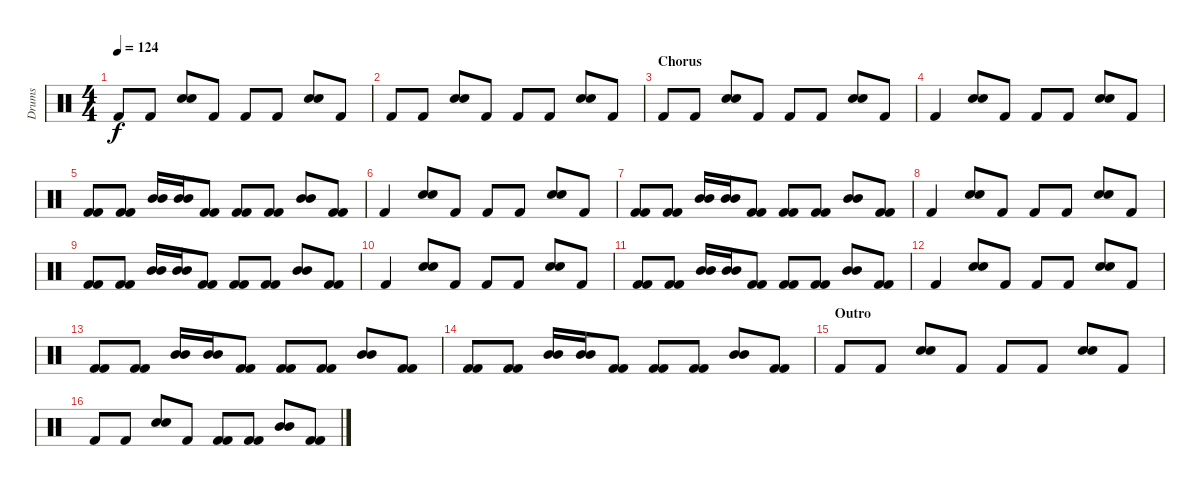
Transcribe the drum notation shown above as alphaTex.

\track ("Drums" "Drums") {instrument percussion}
\staff {score}
\articulation defaults
\ts (4 4)
\tempo 124
\clef neutral
\ks c "Kick (hit) 2".8{dy f} "Kick (hit) 2".8
("Snare (hit) 2" "Snare (hit) 2").8 "Kick (hit) 2".8 "Kick (hit) 2".8 "Kick (hit) 2".8 ("Snare (hit) 2" "Snare (hit) 2").8 "Kick (hit) 2".8 |
"Kick (hit) 2".8 "Kick (hit) 2".8 ("Snare (hit) 2" "Snare (hit) 2").8 "Kick (hit) 2".8 "Kick (hit) 2".8 "Kick (hit) 2".8 ("Snare (hit) 2" "Snare (hit) 2").8 "Kick (hit) 2".8 |
\section ("" "Chorus")
"Kick (hit) 2".8 "Kick (hit) 2".8 ("Snare (hit) 2" "Snare (hit) 2").8 "Kick (hit) 2".8 "Kick (hit) 2".8 "Kick (hit) 2".8 ("Snare (hit) 2" "Snare (hit) 2").8 "Kick (hit) 2".8 |
"Kick (hit) 2".4 ("Snare (hit) 2" "Snare (hit) 2").8 "Kick (hit) 2".8 "Kick (hit) 2".8 "Kick (hit) 2".8 ("Snare (hit) 2" "Snare (hit) 2").8 "Kick (hit) 2".8 |
("Kick (hit) 2" "Kick (hit) 2").8 ("Kick (hit) 2" "Kick (hit) 2").8 ("Mid Tom (hit)" "Mid Tom (hit)").16 ("Mid Tom (hit)" "Mid Tom (hit)").16 ("Kick (hit) 2" "Kick (hit) 2").8 ("Kick (hit) 2" "Kick (hit) 2").8 ("Kick (hit) 2" "Kick (hit) 2").8 ("Mid Tom (hit)" "Mid Tom (hit)").8 ("Kick (hit) 2" "Kick (hit) 2").8 |
"Kick (hit) 2".4 ("Snare (hit) 2" "Snare (hit) 2").8 "Kick (hit) 2".8 "Kick (hit) 2".8 "Kick (hit) 2".8 ("Snare (hit) 2" "Snare (hit) 2").8 "Kick (hit) 2".8 |
("Kick (hit) 2" "Kick (hit) 2").8 ("Kick (hit) 2" "Kick (hit) 2").8 ("Mid Tom (hit)" "Mid Tom (hit)").16 ("Mid Tom (hit)" "Mid Tom (hit)").16 ("Kick (hit) 2" "Kick (hit) 2").8 ("Kick (hit) 2" "Kick (hit) 2").8 ("Kick (hit) 2" "Kick (hit) 2").8 ("Mid Tom (hit)" "Mid Tom (hit)").8 ("Kick (hit) 2" "Kick (hit) 2").8 |
"Kick (hit) 2".4 ("Snare (hit) 2" "Snare (hit) 2").8 "Kick (hit) 2".8 "Kick (hit) 2".8 "Kick (hit) 2".8 ("Snare (hit) 2" "Snare (hit) 2").8 "Kick (hit) 2".8 |
("Kick (hit) 2" "Kick (hit) 2").8 ("Kick (hit) 2" "Kick (hit) 2").8 ("Mid Tom (hit)" "Mid Tom (hit)").16 ("Mid Tom (hit)" "Mid Tom (hit)").16 ("Kick (hit) 2" "Kick (hit) 2").8 ("Kick (hit) 2" "Kick (hit) 2").8 ("Kick (hit) 2" "Kick (hit) 2").8 ("Mid Tom (hit)" "Mid Tom (hit)").8 ("Kick (hit) 2" "Kick (hit) 2").8 |
"Kick (hit) 2".4 ("Snare (hit) 2" "Snare (hit) 2").8 "Kick (hit) 2".8 "Kick (hit) 2".8 "Kick (hit) 2".8 ("Snare (hit) 2" "Snare (hit) 2").8 "Kick (hit) 2".8 |
("Kick (hit) 2" "Kick (hit) 2").8 ("Kick (hit) 2" "Kick (hit) 2").8 ("Mid Tom (hit)" "Mid Tom (hit)").16 ("Mid Tom (hit)" "Mid Tom (hit)").16 ("Kick (hit) 2" "Kick (hit) 2").8 ("Kick (hit) 2" "Kick (hit) 2").8 ("Kick (hit) 2" "Kick (hit) 2").8 ("Mid Tom (hit)" "Mid Tom (hit)").8 ("Kick (hit) 2" "Kick (hit) 2").8 |
"Kick (hit) 2".4 ("Snare (hit) 2" "Snare (hit) 2").8 "Kick (hit) 2".8 "Kick (hit) 2".8 "Kick (hit) 2".8 ("Snare (hit) 2" "Snare (hit) 2").8 "Kick (hit) 2".8 |
("Kick (hit) 2" "Kick (hit) 2").8 ("Kick (hit) 2" "Kick (hit) 2").8 ("Mid Tom (hit)" "Mid Tom (hit)").16 ("Mid Tom (hit)" "Mid Tom (hit)").16 ("Kick (hit) 2" "Kick (hit) 2").8 ("Kick (hit) 2" "Kick (hit) 2").8 ("Kick (hit) 2" "Kick (hit) 2").8 ("Mid Tom (hit)" "Mid Tom (hit)").8 ("Kick (hit) 2" "Kick (hit) 2").8 |
("Kick (hit) 2" "Kick (hit) 2").8 ("Kick (hit) 2" "Kick (hit) 2").8 ("Mid Tom (hit)" "Mid Tom (hit)").16 ("Mid Tom (hit)" "Mid Tom (hit)").16 ("Kick (hit) 2" "Kick (hit) 2").8 ("Kick (hit) 2" "Kick (hit) 2").8 ("Kick (hit) 2" "Kick (hit) 2").8 ("Mid Tom (hit)" "Mid Tom (hit)").8 ("Kick (hit) 2" "Kick (hit) 2").8 |
\section ("" "Outro")
"Kick (hit) 2".8 "Kick (hit) 2".8 ("Snare (hit) 2" "Snare (hit) 2").8 "Kick (hit) 2".8 "Kick (hit) 2".8 "Kick (hit) 2".8 ("Snare (hit) 2" "Snare (hit) 2").8 "Kick (hit) 2".8 |
"Kick (hit) 2".8 "Kick (hit) 2".8 ("Snare (hit) 2" "Snare (hit) 2").8 "Kick (hit) 2".8 ("Kick (hit) 2" "Kick (hit) 2").8 ("Kick (hit) 2" "Kick (hit) 2").8 ("Mid Tom (hit)" "Mid Tom (hit)").8 ("Kick (hit) 2" "Kick (hit) 2").8
